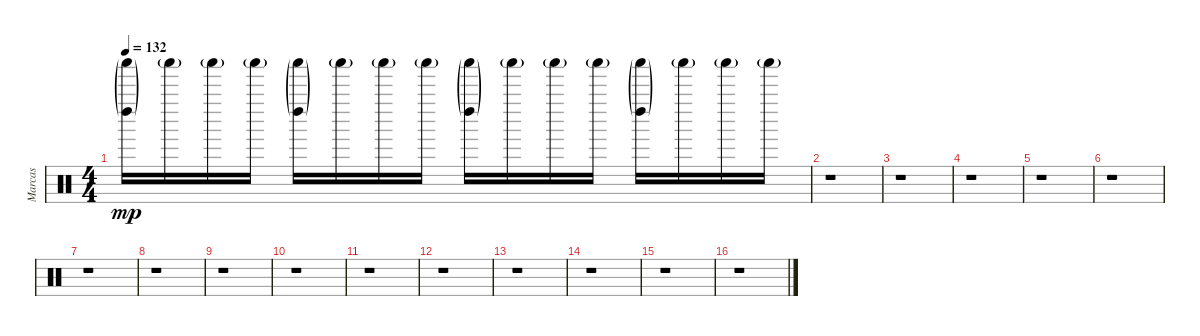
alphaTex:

\track ("Marcas" "Marcas") {instrument percussion}
\staff {score}
\articulation defaults
\ts (4 4)
\tempo 132
\clef neutral
\ks c
("Shaker (hit)"{g} "Left Maraca (hit)"{g}).16{dy mp} "Shaker (hit)"{g}.16 "Shaker (hit)"{g}.16 "Shaker (hit)"{g}.16 ("Shaker (hit)"{g} "Left Maraca (hit)"{g}).16 "Shaker (hit)"{g}.16 "Shaker (hit)"{g}.16 "Shaker (hit)"{g}.16 ("Shaker (hit)"{g} "Left Maraca (hit)"{g}).16 "Shaker (hit)"{g}.16 "Shaker (hit)"{g}.16 "Shaker (hit)"{g}.16 ("Shaker (hit)"{g} "Left Maraca (hit)"{g}).16 "Shaker (hit)"{g}.16 "Shaker (hit)"{g}.16 "Shaker (hit)"{g}.16 |
r.1 |
r.1 |
r.1 |
r.1 |
r.1 |
r.1 |
r.1 |
r.1 |
r.1 |
r.1 |
r.1 |
r.1 |
r.1 |
r.1 |
r.1
